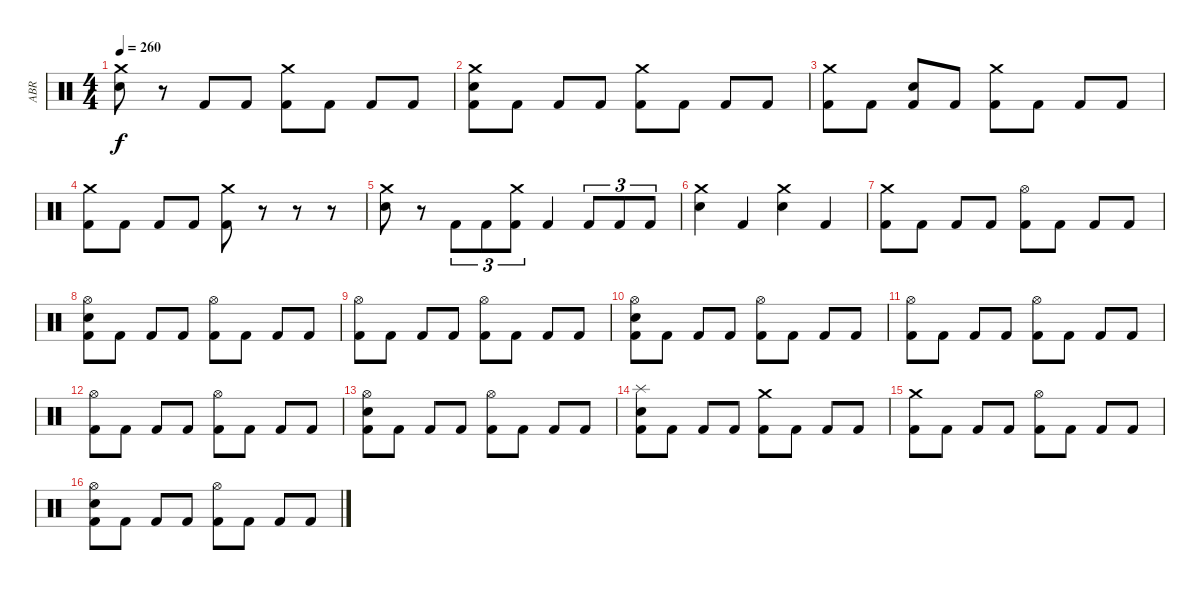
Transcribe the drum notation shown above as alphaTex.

\track ("ABR" "ABR") {instrument percussion}
\staff {score}
\articulation defaults
\ts (4 4)
\tempo 260
\clef neutral
\ks c
("Crash medium (hit)" "Snare (hit) 2").8{dy f} r.8 "Kick (hit) 2".8 "Kick (hit) 2".8 ("Crash medium (hit)" "Kick (hit) 2").8 "Kick (hit) 2".8 "Kick (hit) 2".8 "Kick (hit) 2".8 |
("Crash medium (hit)" "Snare (hit) 2" "Kick (hit) 2").8 "Kick (hit) 2".8 "Kick (hit) 2".8 "Kick (hit) 2".8 ("Crash medium (hit)" "Kick (hit) 2").8 "Kick (hit) 2".8 "Kick (hit) 2".8 "Kick (hit) 2".8 |
("Crash medium (hit)" "Kick (hit) 2").8 "Kick (hit) 2".8 ("Snare (hit) 2" "Kick (hit) 2").8 "Kick (hit) 2".8 ("Crash medium (hit)" "Kick (hit) 2").8 "Kick (hit) 2".8 "Kick (hit) 2".8 "Kick (hit) 2".8 |
("Crash medium (hit)" "Kick (hit) 2").8 "Kick (hit) 2".8 "Kick (hit) 2".8 "Kick (hit) 2".8 ("Crash medium (hit)" "Kick (hit) 2").8 r.8 r.8 r.8 |
("Crash medium (hit)" "Snare (hit) 2").8 r.8 "Kick (hit) 2".8{tu (3 2)} "Kick (hit) 2".8{tu (3 2)} ("Crash medium (hit)" "Kick (hit) 2").8{tu (3 2)} "Kick (hit) 2".4 "Kick (hit) 2".8{tu (3 2)} "Kick (hit) 2".8{tu (3 2)} "Kick (hit) 2".8{tu (3 2)} |
("Crash medium (hit)" "Snare (hit) 2").4 "Kick (hit) 2".4 ("Crash medium (hit)" "Snare (hit) 2").4 "Kick (hit) 2".4 |
("Crash medium (hit)" "Kick (hit) 2").8 "Kick (hit) 2".8 "Kick (hit) 2".8 "Kick (hit) 2".8 ("Hi-Hat (open)" "Kick (hit) 2").8 "Kick (hit) 2".8 "Kick (hit) 2".8 "Kick (hit) 2".8 |
("Hi-Hat (open)" "Snare (hit) 2" "Kick (hit) 2").8 "Kick (hit) 2".8 "Kick (hit) 2".8 "Kick (hit) 2".8 ("Hi-Hat (open)" "Kick (hit) 2").8 "Kick (hit) 2".8 "Kick (hit) 2".8 "Kick (hit) 2".8 |
("Hi-Hat (open)" "Kick (hit) 2").8 "Kick (hit) 2".8 "Kick (hit) 2".8 "Kick (hit) 2".8 ("Hi-Hat (open)" "Kick (hit) 2").8 "Kick (hit) 2".8 "Kick (hit) 2".8 "Kick (hit) 2".8 |
("Hi-Hat (open)" "Snare (hit) 2" "Kick (hit) 2").8 "Kick (hit) 2".8 "Kick (hit) 2".8 "Kick (hit) 2".8 ("Hi-Hat (open)" "Kick (hit) 2").8 "Kick (hit) 2".8 "Kick (hit) 2".8 "Kick (hit) 2".8 |
("Hi-Hat (open)" "Kick (hit) 2").8 "Kick (hit) 2".8 "Kick (hit) 2".8 "Kick (hit) 2".8 ("Hi-Hat (open)" "Kick (hit) 2").8 "Kick (hit) 2".8 "Kick (hit) 2".8 "Kick (hit) 2".8 |
("Hi-Hat (open)" "Kick (hit) 2").8 "Kick (hit) 2".8 "Kick (hit) 2".8 "Kick (hit) 2".8 ("Hi-Hat (open)" "Kick (hit) 2").8 "Kick (hit) 2".8 "Kick (hit) 2".8 "Kick (hit) 2".8 |
("Hi-Hat (open)" "Snare (hit) 2" "Kick (hit) 2").8 "Kick (hit) 2".8 "Kick (hit) 2".8 "Kick (hit) 2".8 ("Hi-Hat (open)" "Kick (hit) 2").8 "Kick (hit) 2".8 "Kick (hit) 2".8 "Kick (hit) 2".8 |
("Splash (hit)" "Snare (hit) 2" "Kick (hit) 2").8 "Kick (hit) 2".8 "Kick (hit) 2".8 "Kick (hit) 2".8 ("Crash medium (hit)" "Kick (hit) 2").8 "Kick (hit) 2".8 "Kick (hit) 2".8 "Kick (hit) 2".8 |
("Crash medium (hit)" "Kick (hit) 2").8 "Kick (hit) 2".8 "Kick (hit) 2".8 "Kick (hit) 2".8 ("Hi-Hat (open)" "Kick (hit) 2").8 "Kick (hit) 2".8 "Kick (hit) 2".8 "Kick (hit) 2".8 |
("Hi-Hat (open)" "Snare (hit) 2" "Kick (hit) 2").8 "Kick (hit) 2".8 "Kick (hit) 2".8 "Kick (hit) 2".8 ("Hi-Hat (open)" "Kick (hit) 2").8 "Kick (hit) 2".8 "Kick (hit) 2".8 "Kick (hit) 2".8
